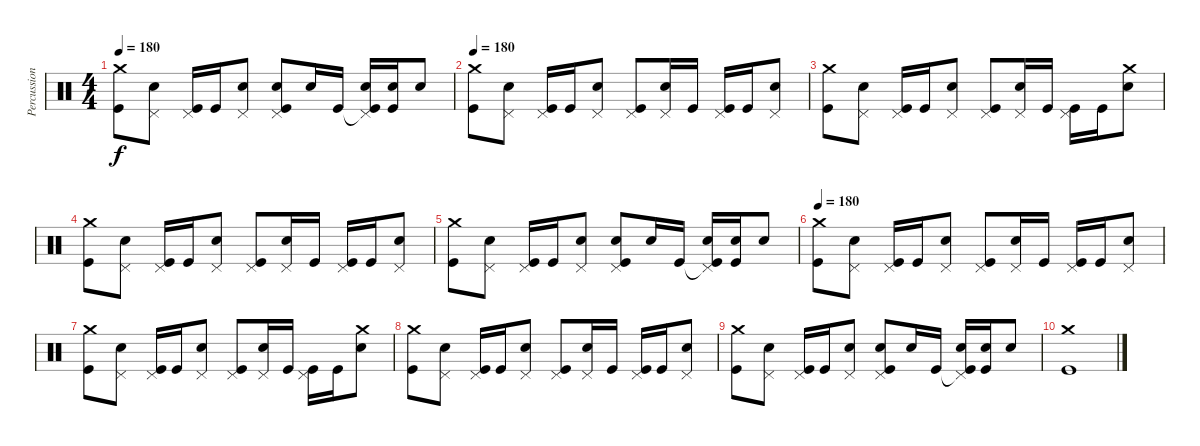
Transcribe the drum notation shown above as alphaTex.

\track ("Percussion" "Percussion") {instrument percussion}
\staff {score}
\articulation defaults
\ts (4 4)
\tempo 180
\clef neutral
\ks c
("Crash medium (hit)" "Kick (hit)").8{dy f} ("Pedal Hi-Hat (hit)" "Snare (hit) 2").8 ("Pedal Hi-Hat (hit)" "Kick (hit)").16 "Kick (hit)".16 ("Pedal Hi-Hat (hit)" "Snare (hit) 2").8 ("Pedal Hi-Hat (hit)" "Snare (hit) 2" "Kick (hit)").8 "Snare (hit) 2".16 "Kick (hit)".16 ("Pedal Hi-Hat (hit)"{t} "Snare (hit) 2" "Kick (hit)").16 ("Snare (hit) 2" "Kick (hit)").16 "Snare (hit) 2".8 |
\tempo 180
("Crash medium (hit)" "Kick (hit)").8 ("Pedal Hi-Hat (hit)" "Snare (hit) 2").8 ("Pedal Hi-Hat (hit)" "Kick (hit)").16 "Kick (hit)".16 ("Pedal Hi-Hat (hit)" "Snare (hit) 2").8 ("Pedal Hi-Hat (hit)" "Kick (hit)").8 ("Pedal Hi-Hat (hit)" "Snare (hit) 2").16 "Kick (hit)".16 ("Pedal Hi-Hat (hit)" "Kick (hit)").16 "Kick (hit)".16 ("Pedal Hi-Hat (hit)" "Snare (hit) 2").8 |
("Crash medium (hit)" "Kick (hit)").8 ("Pedal Hi-Hat (hit)" "Snare (hit) 2").8 ("Pedal Hi-Hat (hit)" "Kick (hit)").16 "Kick (hit)".16 ("Pedal Hi-Hat (hit)" "Snare (hit) 2").8 ("Pedal Hi-Hat (hit)" "Kick (hit)").8 ("Pedal Hi-Hat (hit)" "Snare (hit) 2").16 "Kick (hit)".16 ("Pedal Hi-Hat (hit)" "Kick (hit)").16 "Kick (hit)".16 ("Crash medium (hit)" "Snare (hit) 2").8 |
("Crash medium (hit)" "Kick (hit)").8 ("Pedal Hi-Hat (hit)" "Snare (hit) 2").8 ("Pedal Hi-Hat (hit)" "Kick (hit)").16 "Kick (hit)".16 ("Pedal Hi-Hat (hit)" "Snare (hit) 2").8 ("Pedal Hi-Hat (hit)" "Kick (hit)").8 ("Pedal Hi-Hat (hit)" "Snare (hit) 2").16 "Kick (hit)".16 ("Pedal Hi-Hat (hit)" "Kick (hit)").16 "Kick (hit)".16 ("Pedal Hi-Hat (hit)" "Snare (hit) 2").8 |
("Crash medium (hit)" "Kick (hit)").8 ("Pedal Hi-Hat (hit)" "Snare (hit) 2").8 ("Pedal Hi-Hat (hit)" "Kick (hit)").16 "Kick (hit)".16 ("Pedal Hi-Hat (hit)" "Snare (hit) 2").8 ("Pedal Hi-Hat (hit)" "Snare (hit) 2" "Kick (hit)").8 "Snare (hit) 2".16 "Kick (hit)".16 ("Pedal Hi-Hat (hit)"{t} "Snare (hit) 2" "Kick (hit)").16 ("Snare (hit) 2" "Kick (hit)").16 "Snare (hit) 2".8 |
\tempo 180
("Crash medium (hit)" "Kick (hit)").8 ("Pedal Hi-Hat (hit)" "Snare (hit) 2").8 ("Pedal Hi-Hat (hit)" "Kick (hit)").16 "Kick (hit)".16 ("Pedal Hi-Hat (hit)" "Snare (hit) 2").8 ("Pedal Hi-Hat (hit)" "Kick (hit)").8 ("Pedal Hi-Hat (hit)" "Snare (hit) 2").16 "Kick (hit)".16 ("Pedal Hi-Hat (hit)" "Kick (hit)").16 "Kick (hit)".16 ("Pedal Hi-Hat (hit)" "Snare (hit) 2").8 |
("Crash medium (hit)" "Kick (hit)").8 ("Pedal Hi-Hat (hit)" "Snare (hit) 2").8 ("Pedal Hi-Hat (hit)" "Kick (hit)").16 "Kick (hit)".16 ("Pedal Hi-Hat (hit)" "Snare (hit) 2").8 ("Pedal Hi-Hat (hit)" "Kick (hit)").8 ("Pedal Hi-Hat (hit)" "Snare (hit) 2").16 "Kick (hit)".16 ("Pedal Hi-Hat (hit)" "Kick (hit)").16 "Kick (hit)".16 ("Crash medium (hit)" "Snare (hit) 2").8 |
("Crash medium (hit)" "Kick (hit)").8 ("Pedal Hi-Hat (hit)" "Snare (hit) 2").8 ("Pedal Hi-Hat (hit)" "Kick (hit)").16 "Kick (hit)".16 ("Pedal Hi-Hat (hit)" "Snare (hit) 2").8 ("Pedal Hi-Hat (hit)" "Kick (hit)").8 ("Pedal Hi-Hat (hit)" "Snare (hit) 2").16 "Kick (hit)".16 ("Pedal Hi-Hat (hit)" "Kick (hit)").16 "Kick (hit)".16 ("Pedal Hi-Hat (hit)" "Snare (hit) 2").8 |
("Crash medium (hit)" "Kick (hit)").8 ("Pedal Hi-Hat (hit)" "Snare (hit) 2").8 ("Pedal Hi-Hat (hit)" "Kick (hit)").16 "Kick (hit)".16 ("Pedal Hi-Hat (hit)" "Snare (hit) 2").8 ("Pedal Hi-Hat (hit)" "Snare (hit) 2" "Kick (hit)").8 "Snare (hit) 2".16 "Kick (hit)".16 ("Pedal Hi-Hat (hit)"{t} "Snare (hit) 2" "Kick (hit)").16 ("Snare (hit) 2" "Kick (hit)").16 "Snare (hit) 2".8 |
("Crash medium (hit)" "Kick (hit)").1
